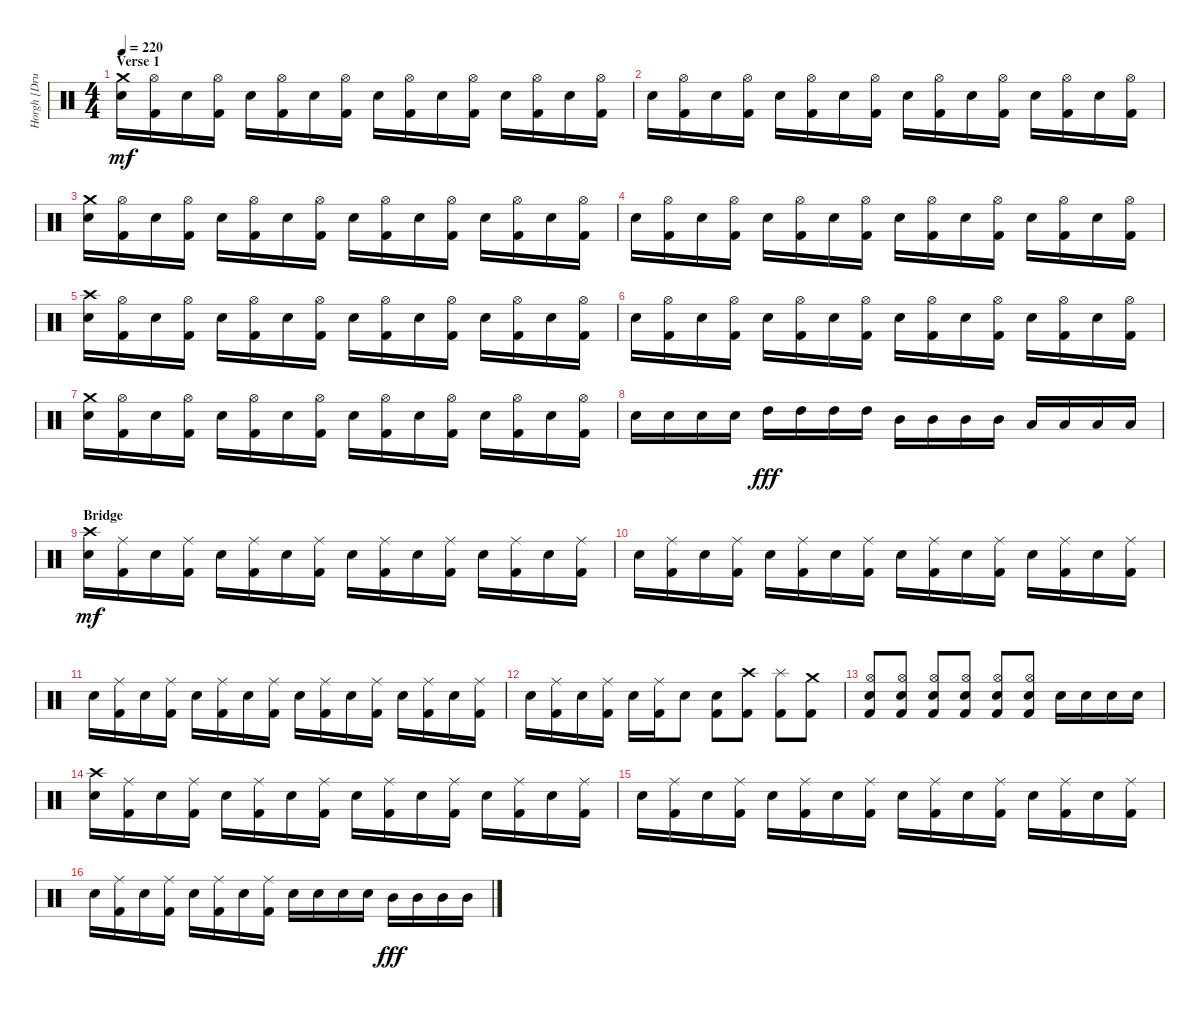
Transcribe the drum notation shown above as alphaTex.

\track ("Horgh [Drums]" "Horgh [Dru") {instrument percussion}
\staff {score}
\articulation defaults
\ts (4 4)
\section ("" "Verse 1")
\tempo 220
\clef neutral
\ks c
("Crash medium (hit)" "Electric Snare (hit)").16{dy mf} ("Hi-Hat (open)" "Kick (hit) 2").16 "Electric Snare (hit)".16 ("Hi-Hat (open)" "Kick (hit) 2").16 "Electric Snare (hit)".16 ("Hi-Hat (open)" "Kick (hit) 2").16 "Electric Snare (hit)".16 ("Hi-Hat (open)" "Kick (hit) 2").16 "Electric Snare (hit)".16 ("Hi-Hat (open)" "Kick (hit) 2").16 "Electric Snare (hit)".16 ("Hi-Hat (open)" "Kick (hit) 2").16 "Electric Snare (hit)".16 ("Hi-Hat (open)" "Kick (hit) 2").16 "Electric Snare (hit)".16 ("Hi-Hat (open)" "Kick (hit) 2").16 |
"Electric Snare (hit)".16 ("Hi-Hat (open)" "Kick (hit) 2").16 "Electric Snare (hit)".16 ("Hi-Hat (open)" "Kick (hit) 2").16 "Electric Snare (hit)".16 ("Hi-Hat (open)" "Kick (hit) 2").16 "Electric Snare (hit)".16 ("Hi-Hat (open)" "Kick (hit) 2").16 "Electric Snare (hit)".16 ("Hi-Hat (open)" "Kick (hit) 2").16 "Electric Snare (hit)".16 ("Hi-Hat (open)" "Kick (hit) 2").16 "Electric Snare (hit)".16 ("Hi-Hat (open)" "Kick (hit) 2").16 "Electric Snare (hit)".16 ("Hi-Hat (open)" "Kick (hit) 2").16 |
("Crash medium (hit)" "Electric Snare (hit)").16 ("Hi-Hat (open)" "Kick (hit) 2").16 "Electric Snare (hit)".16 ("Hi-Hat (open)" "Kick (hit) 2").16 "Electric Snare (hit)".16 ("Hi-Hat (open)" "Kick (hit) 2").16 "Electric Snare (hit)".16 ("Hi-Hat (open)" "Kick (hit) 2").16 "Electric Snare (hit)".16 ("Hi-Hat (open)" "Kick (hit) 2").16 "Electric Snare (hit)".16 ("Hi-Hat (open)" "Kick (hit) 2").16 "Electric Snare (hit)".16 ("Hi-Hat (open)" "Kick (hit) 2").16 "Electric Snare (hit)".16 ("Hi-Hat (open)" "Kick (hit) 2").16 |
"Electric Snare (hit)".16 ("Hi-Hat (open)" "Kick (hit) 2").16 "Electric Snare (hit)".16 ("Hi-Hat (open)" "Kick (hit) 2").16 "Electric Snare (hit)".16 ("Hi-Hat (open)" "Kick (hit) 2").16 "Electric Snare (hit)".16 ("Hi-Hat (open)" "Kick (hit) 2").16 "Electric Snare (hit)".16 ("Hi-Hat (open)" "Kick (hit) 2").16 "Electric Snare (hit)".16 ("Hi-Hat (open)" "Kick (hit) 2").16 "Electric Snare (hit)".16 ("Hi-Hat (open)" "Kick (hit) 2").16 "Electric Snare (hit)".16 ("Hi-Hat (open)" "Kick (hit) 2").16 |
("Crash high (hit)" "Electric Snare (hit)").16 ("Hi-Hat (open)" "Kick (hit) 2").16 "Electric Snare (hit)".16 ("Hi-Hat (open)" "Kick (hit) 2").16 "Electric Snare (hit)".16 ("Hi-Hat (open)" "Kick (hit) 2").16 "Electric Snare (hit)".16 ("Hi-Hat (open)" "Kick (hit) 2").16 "Electric Snare (hit)".16 ("Hi-Hat (open)" "Kick (hit) 2").16 "Electric Snare (hit)".16 ("Hi-Hat (open)" "Kick (hit) 2").16 "Electric Snare (hit)".16 ("Hi-Hat (open)" "Kick (hit) 2").16 "Electric Snare (hit)".16 ("Hi-Hat (open)" "Kick (hit) 2").16 |
"Electric Snare (hit)".16 ("Hi-Hat (open)" "Kick (hit) 2").16 "Electric Snare (hit)".16 ("Hi-Hat (open)" "Kick (hit) 2").16 "Electric Snare (hit)".16 ("Hi-Hat (open)" "Kick (hit) 2").16 "Electric Snare (hit)".16 ("Hi-Hat (open)" "Kick (hit) 2").16 "Electric Snare (hit)".16 ("Hi-Hat (open)" "Kick (hit) 2").16 "Electric Snare (hit)".16 ("Hi-Hat (open)" "Kick (hit) 2").16 "Electric Snare (hit)".16 ("Hi-Hat (open)" "Kick (hit) 2").16 "Electric Snare (hit)".16 ("Hi-Hat (open)" "Kick (hit) 2").16 |
("Crash medium (hit)" "Electric Snare (hit)").16 ("Hi-Hat (open)" "Kick (hit) 2").16 "Electric Snare (hit)".16 ("Hi-Hat (open)" "Kick (hit) 2").16 "Electric Snare (hit)".16 ("Hi-Hat (open)" "Kick (hit) 2").16 "Electric Snare (hit)".16 ("Hi-Hat (open)" "Kick (hit) 2").16 "Electric Snare (hit)".16 ("Hi-Hat (open)" "Kick (hit) 2").16 "Electric Snare (hit)".16 ("Hi-Hat (open)" "Kick (hit) 2").16 "Electric Snare (hit)".16 ("Hi-Hat (open)" "Kick (hit) 2").16 "Electric Snare (hit)".16 ("Hi-Hat (open)" "Kick (hit) 2").16 |
"Electric Snare (hit)".16 "Electric Snare (hit)".16 "Electric Snare (hit)".16 "Electric Snare (hit)".16 "High Tom (hit)".16{dy fff} "High Tom (hit)".16 "High Tom (hit)".16 "High Tom (hit)".16 "Mid Tom (hit)".16 "Mid Tom (hit)".16 "Mid Tom (hit)".16 "Mid Tom (hit)".16 "Low Tom (hit)".16 "Low Tom (hit)".16 "Low Tom (hit)".16 "Low Tom (hit)".16 |
\section ("" "Bridge")
("Crash high (hit)" "Electric Snare (hit)").16{dy mf} ("Ride (middle)" "Kick (hit) 2").16 "Electric Snare (hit)".16 ("Ride (middle)" "Kick (hit) 2").16 "Electric Snare (hit)".16 ("Ride (middle)" "Kick (hit) 2").16 "Electric Snare (hit)".16 ("Ride (middle)" "Kick (hit) 2").16 "Electric Snare (hit)".16 ("Ride (middle)" "Kick (hit) 2").16 "Electric Snare (hit)".16 ("Ride (middle)" "Kick (hit) 2").16 "Electric Snare (hit)".16 ("Ride (middle)" "Kick (hit) 2").16 "Electric Snare (hit)".16 ("Ride (middle)" "Kick (hit) 2").16 |
"Electric Snare (hit)".16 ("Ride (middle)" "Kick (hit) 2").16 "Electric Snare (hit)".16 ("Ride (middle)" "Kick (hit) 2").16 "Electric Snare (hit)".16 ("Ride (middle)" "Kick (hit) 2").16 "Electric Snare (hit)".16 ("Ride (middle)" "Kick (hit) 2").16 "Electric Snare (hit)".16 ("Ride (middle)" "Kick (hit) 2").16 "Electric Snare (hit)".16 ("Ride (middle)" "Kick (hit) 2").16 "Electric Snare (hit)".16 ("Ride (middle)" "Kick (hit) 2").16 "Electric Snare (hit)".16 ("Ride (middle)" "Kick (hit) 2").16 |
"Electric Snare (hit)".16 ("Ride (middle)" "Kick (hit) 2").16 "Electric Snare (hit)".16 ("Ride (middle)" "Kick (hit) 2").16 "Electric Snare (hit)".16 ("Ride (middle)" "Kick (hit) 2").16 "Electric Snare (hit)".16 ("Ride (middle)" "Kick (hit) 2").16 "Electric Snare (hit)".16 ("Ride (middle)" "Kick (hit) 2").16 "Electric Snare (hit)".16 ("Ride (middle)" "Kick (hit) 2").16 "Electric Snare (hit)".16 ("Ride (middle)" "Kick (hit) 2").16 "Electric Snare (hit)".16 ("Ride (middle)" "Kick (hit) 2").16 |
"Electric Snare (hit)".16 ("Ride (middle)" "Kick (hit) 2").16 "Electric Snare (hit)".16 ("Ride (middle)" "Kick (hit) 2").16 "Electric Snare (hit)".16 ("Ride (middle)" "Kick (hit) 2").16 "Electric Snare (hit)".8 ("Electric Snare (hit)" "Kick (hit) 2").8 ("Crash high (hit)" "Kick (hit) 2").8 ("Splash (hit)" "Kick (hit) 2").8 ("Crash medium (hit)" "Kick (hit) 2").8 |
("Hi-Hat (open)" "Electric Snare (hit)" "Kick (hit) 2").8 ("Hi-Hat (open)" "Electric Snare (hit)" "Kick (hit) 2").8 ("Hi-Hat (open)" "Electric Snare (hit)" "Kick (hit) 2").8 ("Hi-Hat (open)" "Electric Snare (hit)" "Kick (hit) 2").8 ("Hi-Hat (open)" "Electric Snare (hit)" "Kick (hit) 2").8 ("Hi-Hat (open)" "Electric Snare (hit)" "Kick (hit) 2").8 "Electric Snare (hit)".16 "Electric Snare (hit)".16 "Electric Snare (hit)".16 "Electric Snare (hit)".16 |
("Crash high (hit)" "Electric Snare (hit)").16 ("Ride (middle)" "Kick (hit) 2").16 "Electric Snare (hit)".16 ("Ride (middle)" "Kick (hit) 2").16 "Electric Snare (hit)".16 ("Ride (middle)" "Kick (hit) 2").16 "Electric Snare (hit)".16 ("Ride (middle)" "Kick (hit) 2").16 "Electric Snare (hit)".16 ("Ride (middle)" "Kick (hit) 2").16 "Electric Snare (hit)".16 ("Ride (middle)" "Kick (hit) 2").16 "Electric Snare (hit)".16 ("Ride (middle)" "Kick (hit) 2").16 "Electric Snare (hit)".16 ("Ride (middle)" "Kick (hit) 2").16 |
"Electric Snare (hit)".16 ("Ride (middle)" "Kick (hit) 2").16 "Electric Snare (hit)".16 ("Ride (middle)" "Kick (hit) 2").16 "Electric Snare (hit)".16 ("Ride (middle)" "Kick (hit) 2").16 "Electric Snare (hit)".16 ("Ride (middle)" "Kick (hit) 2").16 "Electric Snare (hit)".16 ("Ride (middle)" "Kick (hit) 2").16 "Electric Snare (hit)".16 ("Ride (middle)" "Kick (hit) 2").16 "Electric Snare (hit)".16 ("Ride (middle)" "Kick (hit) 2").16 "Electric Snare (hit)".16 ("Ride (middle)" "Kick (hit) 2").16 |
"Electric Snare (hit)".16 ("Ride (middle)" "Kick (hit) 2").16 "Electric Snare (hit)".16 ("Ride (middle)" "Kick (hit) 2").16 "Electric Snare (hit)".16 ("Ride (middle)" "Kick (hit) 2").16 "Electric Snare (hit)".16 ("Ride (middle)" "Kick (hit) 2").16 "Electric Snare (hit)".16 "Electric Snare (hit)".16 "Electric Snare (hit)".16 "Electric Snare (hit)".16 "Mid Tom (hit)".16{dy fff} "Mid Tom (hit)".16 "Mid Tom (hit)".16 "Mid Tom (hit)".16
